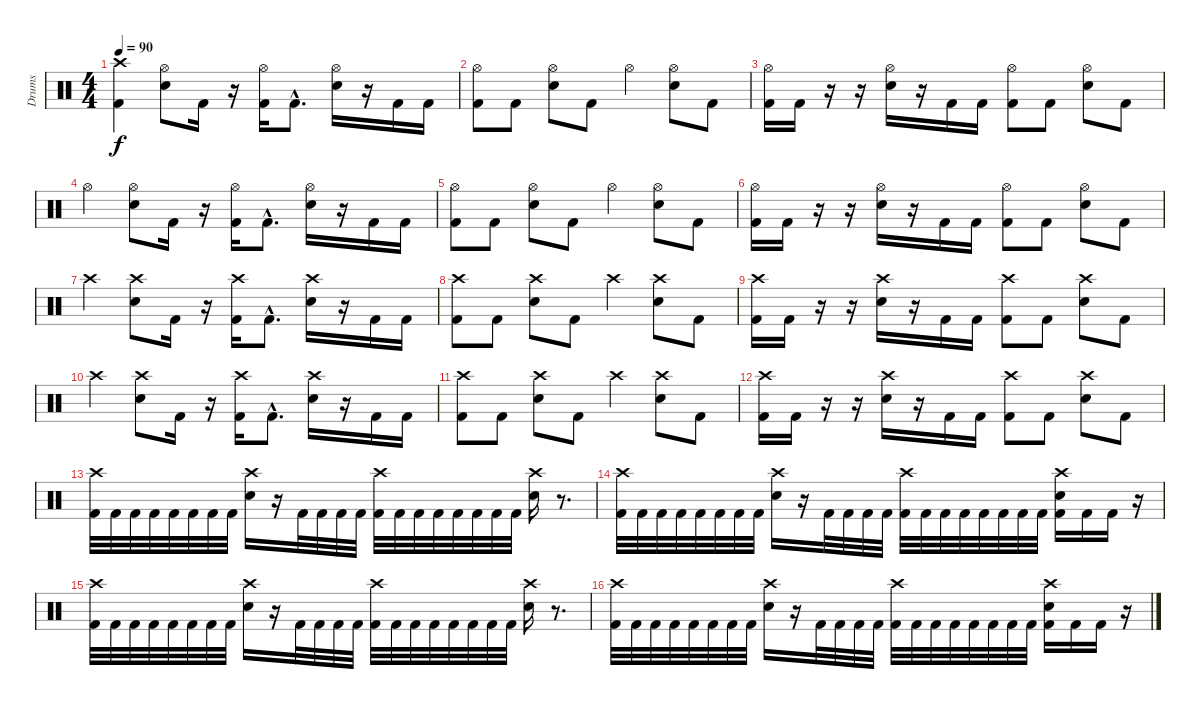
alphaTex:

\track ("Drums" "Drums") {instrument percussion}
\staff {score}
\articulation defaults
\ts (4 4)
\tempo 90
\clef neutral
\ks c
("Crash high (hit)" "Kick (hit) 2").4{dy f} ("Hi-Hat (open)" "Electric Snare (hit)").8 "Kick (hit) 2".16 r.16 ("Hi-Hat (open)" "Kick (hit) 2").16 "Kick (hit) 2"{hac}.8{d} ("Hi-Hat (open)" "Electric Snare (hit)").16 r.16 "Kick (hit) 2".16 "Kick (hit) 2".16 |
("Hi-Hat (open)" "Kick (hit) 2").8 "Kick (hit) 2".8 ("Hi-Hat (open)" "Electric Snare (hit)").8 "Kick (hit) 2".8 "Hi-Hat (open)".4 ("Hi-Hat (open)" "Electric Snare (hit)").8 "Kick (hit) 2".8 |
("Hi-Hat (open)" "Kick (hit) 2").16 "Kick (hit) 2".16 r.16 r.16 ("Hi-Hat (open)" "Electric Snare (hit)").16 r.16 "Kick (hit) 2".16 "Kick (hit) 2".16 ("Hi-Hat (open)" "Kick (hit) 2").8 "Kick (hit) 2".8 ("Hi-Hat (open)" "Electric Snare (hit)").8 "Kick (hit) 2".8 |
"Hi-Hat (open)".4 ("Hi-Hat (open)" "Electric Snare (hit)").8 "Kick (hit) 2".16 r.16 ("Hi-Hat (open)" "Kick (hit) 2").16 "Kick (hit) 2"{hac}.8{d} ("Hi-Hat (open)" "Electric Snare (hit)").16 r.16 "Kick (hit) 2".16 "Kick (hit) 2".16 |
("Hi-Hat (open)" "Kick (hit) 2").8 "Kick (hit) 2".8 ("Hi-Hat (open)" "Electric Snare (hit)").8 "Kick (hit) 2".8 "Hi-Hat (open)".4 ("Hi-Hat (open)" "Electric Snare (hit)").8 "Kick (hit) 2".8 |
("Hi-Hat (open)" "Kick (hit) 2").16 "Kick (hit) 2".16 r.16 r.16 ("Hi-Hat (open)" "Electric Snare (hit)").16 r.16 "Kick (hit) 2".16 "Kick (hit) 2".16 ("Hi-Hat (open)" "Kick (hit) 2").8 "Kick (hit) 2".8 ("Hi-Hat (open)" "Electric Snare (hit)").8 "Kick (hit) 2".8 |
"Crash high (hit)".4 ("Crash high (hit)" "Electric Snare (hit)").8 "Kick (hit) 2".16 r.16 ("Crash high (hit)" "Kick (hit) 2").16 "Kick (hit) 2"{hac}.8{d} ("Crash high (hit)" "Electric Snare (hit)").16 r.16 "Kick (hit) 2".16 "Kick (hit) 2".16 |
("Crash high (hit)" "Kick (hit) 2").8 "Kick (hit) 2".8 ("Crash high (hit)" "Electric Snare (hit)").8 "Kick (hit) 2".8 "Crash high (hit)".4 ("Crash high (hit)" "Electric Snare (hit)").8 "Kick (hit) 2".8 |
("Crash high (hit)" "Kick (hit) 2").16 "Kick (hit) 2".16 r.16 r.16 ("Crash high (hit)" "Electric Snare (hit)").16 r.16 "Kick (hit) 2".16 "Kick (hit) 2".16 ("Crash high (hit)" "Kick (hit) 2").8 "Kick (hit) 2".8 ("Crash high (hit)" "Electric Snare (hit)").8 "Kick (hit) 2".8 |
"Crash high (hit)".4 ("Crash high (hit)" "Electric Snare (hit)").8 "Kick (hit) 2".16 r.16 ("Crash high (hit)" "Kick (hit) 2").16 "Kick (hit) 2"{hac}.8{d} ("Crash high (hit)" "Electric Snare (hit)").16 r.16 "Kick (hit) 2".16 "Kick (hit) 2".16 |
("Crash high (hit)" "Kick (hit) 2").8 "Kick (hit) 2".8 ("Crash high (hit)" "Electric Snare (hit)").8 "Kick (hit) 2".8 "Crash high (hit)".4 ("Crash high (hit)" "Electric Snare (hit)").8 "Kick (hit) 2".8 |
("Crash high (hit)" "Kick (hit) 2").16 "Kick (hit) 2".16 r.16 r.16 ("Crash high (hit)" "Electric Snare (hit)").16 r.16 "Kick (hit) 2".16 "Kick (hit) 2".16 ("Crash high (hit)" "Kick (hit) 2").8 "Kick (hit) 2".8 ("Crash high (hit)" "Electric Snare (hit)").8 "Kick (hit) 2".8 |
("Crash high (hit)" "Kick (hit) 2").32 "Kick (hit) 2".32 "Kick (hit) 2".32 "Kick (hit) 2".32 "Kick (hit) 2".32 "Kick (hit) 2".32 "Kick (hit) 2".32 "Kick (hit) 2".32 ("Crash high (hit)" "Electric Snare (hit)").16 r.16 "Kick (hit) 2".32 "Kick (hit) 2".32 "Kick (hit) 2".32 "Kick (hit) 2".32 ("Crash high (hit)" "Kick (hit) 2").32 "Kick (hit) 2".32 "Kick (hit) 2".32 "Kick (hit) 2".32 "Kick (hit) 2".32 "Kick (hit) 2".32 "Kick (hit) 2".32 "Kick (hit) 2".32 ("Crash high (hit)" "Electric Snare (hit)").16 r.8{d} |
("Crash high (hit)" "Kick (hit) 2").32 "Kick (hit) 2".32 "Kick (hit) 2".32 "Kick (hit) 2".32 "Kick (hit) 2".32 "Kick (hit) 2".32 "Kick (hit) 2".32 "Kick (hit) 2".32 ("Crash high (hit)" "Electric Snare (hit)").16 r.16 "Kick (hit) 2".32 "Kick (hit) 2".32 "Kick (hit) 2".32 "Kick (hit) 2".32 ("Crash high (hit)" "Kick (hit) 2").32 "Kick (hit) 2".32 "Kick (hit) 2".32 "Kick (hit) 2".32 "Kick (hit) 2".32 "Kick (hit) 2".32 "Kick (hit) 2".32 "Kick (hit) 2".32 ("Crash high (hit)" "Electric Snare (hit)" "Kick (hit) 2").16 "Kick (hit) 2".16 "Kick (hit) 2".16 r.16 |
("Crash high (hit)" "Kick (hit) 2").32 "Kick (hit) 2".32 "Kick (hit) 2".32 "Kick (hit) 2".32 "Kick (hit) 2".32 "Kick (hit) 2".32 "Kick (hit) 2".32 "Kick (hit) 2".32 ("Crash high (hit)" "Electric Snare (hit)").16 r.16 "Kick (hit) 2".32 "Kick (hit) 2".32 "Kick (hit) 2".32 "Kick (hit) 2".32 ("Crash high (hit)" "Kick (hit) 2").32 "Kick (hit) 2".32 "Kick (hit) 2".32 "Kick (hit) 2".32 "Kick (hit) 2".32 "Kick (hit) 2".32 "Kick (hit) 2".32 "Kick (hit) 2".32 ("Crash high (hit)" "Electric Snare (hit)").16 r.8{d} |
("Crash high (hit)" "Kick (hit) 2").32 "Kick (hit) 2".32 "Kick (hit) 2".32 "Kick (hit) 2".32 "Kick (hit) 2".32 "Kick (hit) 2".32 "Kick (hit) 2".32 "Kick (hit) 2".32 ("Crash high (hit)" "Electric Snare (hit)").16 r.16 "Kick (hit) 2".32 "Kick (hit) 2".32 "Kick (hit) 2".32 "Kick (hit) 2".32 ("Crash high (hit)" "Kick (hit) 2").32 "Kick (hit) 2".32 "Kick (hit) 2".32 "Kick (hit) 2".32 "Kick (hit) 2".32 "Kick (hit) 2".32 "Kick (hit) 2".32 "Kick (hit) 2".32 ("Crash high (hit)" "Electric Snare (hit)" "Kick (hit) 2").16 "Kick (hit) 2".16 "Kick (hit) 2".16 r.16
